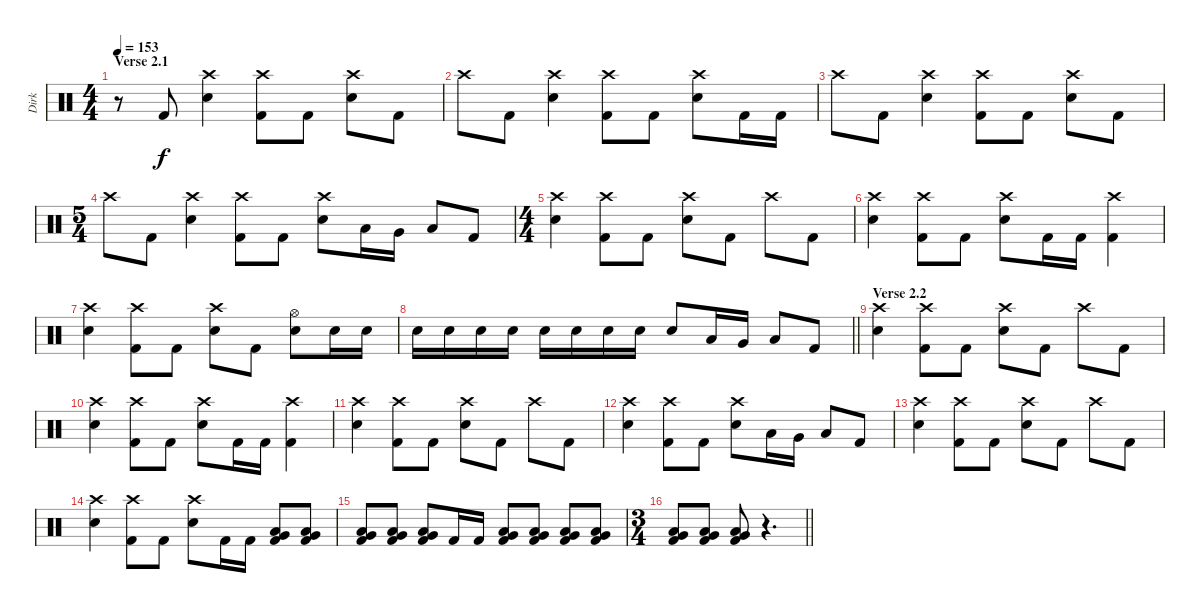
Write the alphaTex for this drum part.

\track ("Dirk" "Dirk") {instrument percussion}
\staff {score}
\articulation defaults
\ts (4 4)
\section ("" "Verse 2.1")
\tempo 153
\clef neutral
\ks c
r.8{dy f} "Kick (hit) 2".8 ("Crash high (hit)" "Electric Snare (hit)").4 ("Crash high (hit)" "Kick (hit) 2").8 "Kick (hit) 2".8 ("Crash high (hit)" "Electric Snare (hit)").8 "Kick (hit) 2".8 |
"Crash high (hit)".8 "Kick (hit) 2".8 ("Crash high (hit)" "Electric Snare (hit)").4 ("Crash high (hit)" "Kick (hit) 2").8 "Kick (hit) 2".8 ("Crash high (hit)" "Electric Snare (hit)").8 "Kick (hit) 2".16 "Kick (hit) 2".16 |
"Crash high (hit)".8 "Kick (hit) 2".8 ("Crash high (hit)" "Electric Snare (hit)").4 ("Crash high (hit)" "Kick (hit) 2").8 "Kick (hit) 2".8 ("Crash high (hit)" "Electric Snare (hit)").8 "Kick (hit) 2".8 |
\ts (5 4)
"Crash high (hit)".8 "Kick (hit) 2".8 ("Crash high (hit)" "Electric Snare (hit)").4 ("Crash high (hit)" "Kick (hit) 2").8 "Kick (hit) 2".8 ("Crash high (hit)" "Electric Snare (hit)").8 "Low Tom (hit)".16 "Very Low Tom (hit)".16 "Low Floor Tom (hit)".8 "Kick (hit) 2".8 |
\ts (4 4)
("Crash high (hit)" "Electric Snare (hit)").4 ("Crash high (hit)" "Kick (hit) 2").8 "Kick (hit) 2".8 ("Crash high (hit)" "Electric Snare (hit)").8 "Kick (hit) 2".8 "Crash high (hit)".8 "Kick (hit) 2".8 |
("Crash high (hit)" "Electric Snare (hit)").4 ("Crash high (hit)" "Kick (hit) 2").8 "Kick (hit) 2".8 ("Crash high (hit)" "Electric Snare (hit)").8 "Kick (hit) 2".16 "Kick (hit) 2".16 ("Crash high (hit)" "Kick (hit) 2").4 |
("Crash high (hit)" "Electric Snare (hit)").4 ("Crash high (hit)" "Kick (hit) 2").8 "Kick (hit) 2".8 ("Crash high (hit)" "Electric Snare (hit)").8 "Kick (hit) 2".8 ("Hi-Hat (open)" "Electric Snare (hit)").8 "Electric Snare (hit)".16 "Electric Snare (hit)".16 |
\barLineRight lightlight "Electric Snare (hit)".16 "Electric Snare (hit)".16 "Electric Snare (hit)".16 "Electric Snare (hit)".16 "Electric Snare (hit)".16 "Electric Snare (hit)".16 "Electric Snare (hit)".16 "Electric Snare (hit)".16 "Electric Snare (hit)".8 "Low Tom (hit)".16 "Very Low Tom (hit)".16 "Low Floor Tom (hit)".8 "Kick (hit) 2".8
|
\section ("" "Verse 2.2")
("Crash high (hit)" "Electric Snare (hit)").4 ("Crash high (hit)" "Kick (hit) 2").8 "Kick (hit) 2".8 ("Crash high (hit)" "Electric Snare (hit)").8 "Kick (hit) 2".8 "Crash high (hit)".8 "Kick (hit) 2".8 |
("Crash high (hit)" "Electric Snare (hit)").4 ("Crash high (hit)" "Kick (hit) 2").8 "Kick (hit) 2".8 ("Crash high (hit)" "Electric Snare (hit)").8 "Kick (hit) 2".16 "Kick (hit) 2".16 ("Crash high (hit)" "Kick (hit) 2").4 |
("Crash high (hit)" "Electric Snare (hit)").4 ("Crash high (hit)" "Kick (hit) 2").8 "Kick (hit) 2".8 ("Crash high (hit)" "Electric Snare (hit)").8 "Kick (hit) 2".8 "Crash high (hit)".8 "Kick (hit) 2".8 |
("Crash high (hit)" "Electric Snare (hit)").4 ("Crash high (hit)" "Kick (hit) 2").8 "Kick (hit) 2".8 ("Crash high (hit)" "Electric Snare (hit)").8 "Low Tom (hit)".16 "Very Low Tom (hit)".16 "Low Floor Tom (hit)".8 "Kick (hit) 2".8 |
("Crash high (hit)" "Electric Snare (hit)").4 ("Crash high (hit)" "Kick (hit) 2").8 "Kick (hit) 2".8 ("Crash high (hit)" "Electric Snare (hit)").8 "Kick (hit) 2".8 "Crash high (hit)".8 "Kick (hit) 2".8 |
("Crash high (hit)" "Electric Snare (hit)").4 ("Crash high (hit)" "Kick (hit) 2").8 "Kick (hit) 2".8 ("Crash high (hit)" "Electric Snare (hit)").8 "Kick (hit) 2".16 "Kick (hit) 2".16 ("Very Low Tom (hit)" "Low Floor Tom (hit)" "Kick (hit) 2").8 ("Very Low Tom (hit)" "Low Floor Tom (hit)" "Kick (hit) 2").8 |
("Very Low Tom (hit)" "Low Floor Tom (hit)" "Kick (hit) 2").8 ("Very Low Tom (hit)" "Low Floor Tom (hit)" "Kick (hit) 2").8 ("Very Low Tom (hit)" "Low Floor Tom (hit)" "Kick (hit) 2").8 "Kick (hit) 2".16 "Kick (hit) 2".16 ("Very Low Tom (hit)" "Low Floor Tom (hit)" "Kick (hit) 2").8 ("Very Low Tom (hit)" "Low Floor Tom (hit)" "Kick (hit) 2").8 ("Very Low Tom (hit)" "Low Floor Tom (hit)" "Kick (hit) 2").8 ("Very Low Tom (hit)" "Low Floor Tom (hit)" "Kick (hit) 2").8 |
\ts (3 4)
\barLineRight lightlight
("Very Low Tom (hit)" "Low Floor Tom (hit)" "Kick (hit) 2").8 ("Very Low Tom (hit)" "Low Floor Tom (hit)" "Kick (hit) 2").8 ("Very Low Tom (hit)" "Low Floor Tom (hit)" "Kick (hit) 2").8 r.4{d}
